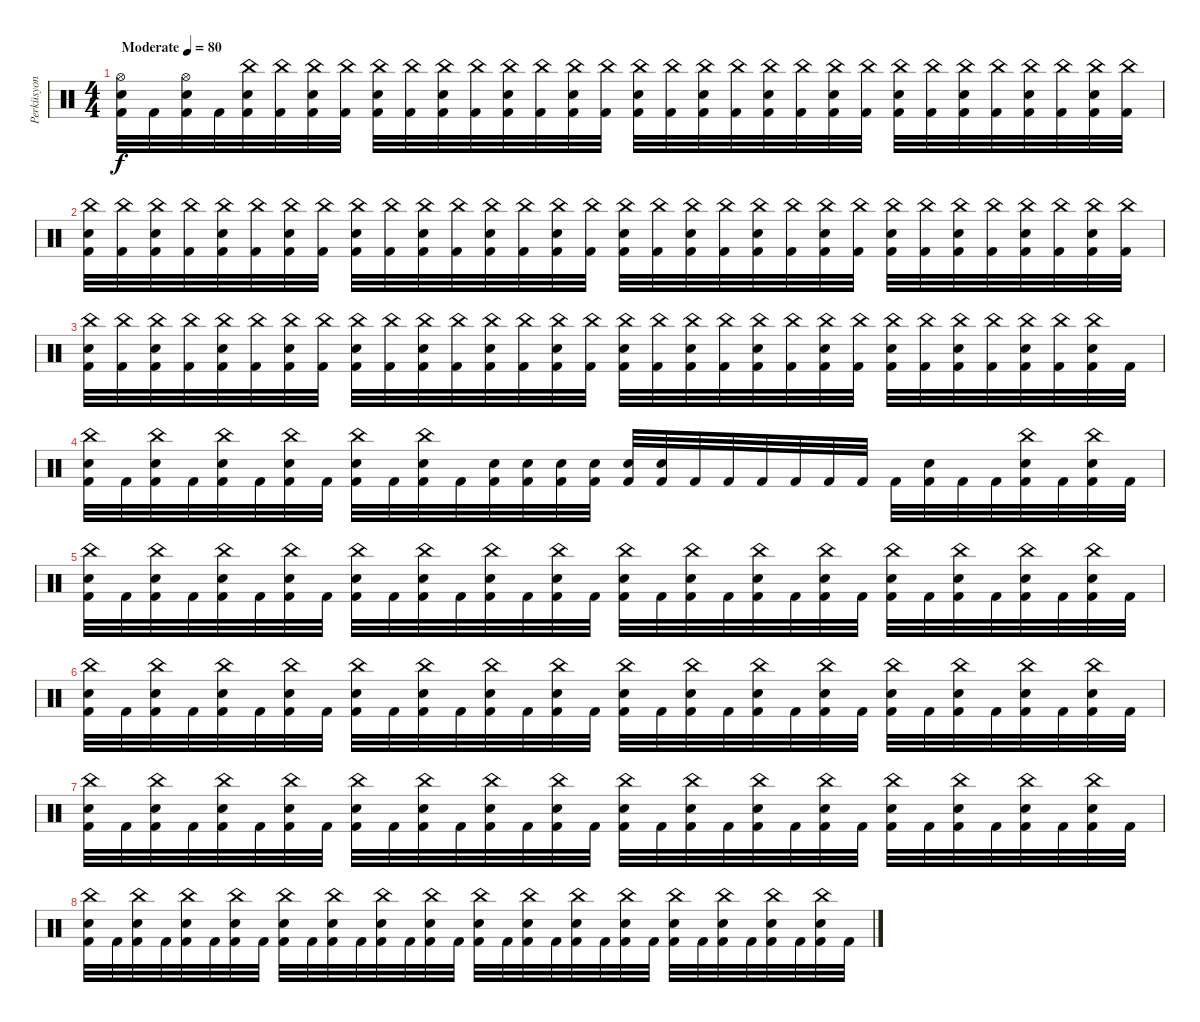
\track ("Perküsyon" "Perküsyon") {instrument percussion}
\staff {score}
\articulation defaults
\ts (4 4)
\tempo (80 "Moderate")
\clef neutral
\ks c
("Hi-Hat (open)" "Electric Snare (hit)" "Kick (hit) 2").32{dy f} "Kick (hit) 2".32 ("Hi-Hat (open)" "Electric Snare (hit)" "Kick (hit) 2").32 "Kick (hit) 2".32 ("China (hit)" "Electric Snare (hit)" "Kick (hit) 2").32 ("China (hit)" "Kick (hit) 2").32 ("China (hit)" "Electric Snare (hit)" "Kick (hit) 2").32 ("China (hit)" "Kick (hit) 2").32 ("China (hit)" "Electric Snare (hit)" "Kick (hit) 2").32 ("China (hit)" "Kick (hit) 2").32 ("China (hit)" "Electric Snare (hit)" "Kick (hit) 2").32 ("China (hit)" "Kick (hit) 2").32 ("China (hit)" "Electric Snare (hit)" "Kick (hit) 2").32 ("China (hit)" "Kick (hit) 2").32 ("China (hit)" "Electric Snare (hit)" "Kick (hit) 2").32 ("China (hit)" "Kick (hit) 2").32 ("China (hit)" "Electric Snare (hit)" "Kick (hit) 2").32 ("China (hit)" "Kick (hit) 2").32 ("China (hit)" "Electric Snare (hit)" "Kick (hit) 2").32 ("China (hit)" "Kick (hit) 2").32 ("China (hit)" "Electric Snare (hit)" "Kick (hit) 2").32 ("China (hit)" "Kick (hit) 2").32 ("China (hit)" "Electric Snare (hit)" "Kick (hit) 2").32 ("China (hit)" "Kick (hit) 2").32 ("China (hit)" "Electric Snare (hit)" "Kick (hit) 2").32 ("China (hit)" "Kick (hit) 2").32 ("China (hit)" "Electric Snare (hit)" "Kick (hit) 2").32 ("China (hit)" "Kick (hit) 2").32 ("China (hit)" "Electric Snare (hit)" "Kick (hit) 2").32 ("China (hit)" "Kick (hit) 2").32 ("China (hit)" "Electric Snare (hit)" "Kick (hit) 2").32 ("China (hit)" "Kick (hit) 2").32 |
("China (hit)" "Electric Snare (hit)" "Kick (hit) 2").32 ("China (hit)" "Kick (hit) 2").32 ("China (hit)" "Electric Snare (hit)" "Kick (hit) 2").32 ("China (hit)" "Kick (hit) 2").32 ("China (hit)" "Electric Snare (hit)" "Kick (hit) 2").32 ("China (hit)" "Kick (hit) 2").32 ("China (hit)" "Electric Snare (hit)" "Kick (hit) 2").32 ("China (hit)" "Kick (hit) 2").32 ("China (hit)" "Electric Snare (hit)" "Kick (hit) 2").32 ("China (hit)" "Kick (hit) 2").32 ("China (hit)" "Electric Snare (hit)" "Kick (hit) 2").32 ("China (hit)" "Kick (hit) 2").32 ("China (hit)" "Electric Snare (hit)" "Kick (hit) 2").32 ("China (hit)" "Kick (hit) 2").32 ("China (hit)" "Electric Snare (hit)" "Kick (hit) 2").32 ("China (hit)" "Kick (hit) 2").32 ("China (hit)" "Electric Snare (hit)" "Kick (hit) 2").32 ("China (hit)" "Kick (hit) 2").32 ("China (hit)" "Electric Snare (hit)" "Kick (hit) 2").32 ("China (hit)" "Kick (hit) 2").32 ("China (hit)" "Electric Snare (hit)" "Kick (hit) 2").32 ("China (hit)" "Kick (hit) 2").32 ("China (hit)" "Electric Snare (hit)" "Kick (hit) 2").32 ("China (hit)" "Kick (hit) 2").32 ("China (hit)" "Electric Snare (hit)" "Kick (hit) 2").32 ("China (hit)" "Kick (hit) 2").32 ("China (hit)" "Electric Snare (hit)" "Kick (hit) 2").32 ("China (hit)" "Kick (hit) 2").32 ("China (hit)" "Electric Snare (hit)" "Kick (hit) 2").32 ("China (hit)" "Kick (hit) 2").32 ("China (hit)" "Electric Snare (hit)" "Kick (hit) 2").32 ("China (hit)" "Kick (hit) 2").32 |
("China (hit)" "Electric Snare (hit)" "Kick (hit) 2").32 ("China (hit)" "Kick (hit) 2").32 ("China (hit)" "Electric Snare (hit)" "Kick (hit) 2").32 ("China (hit)" "Kick (hit) 2").32 ("China (hit)" "Electric Snare (hit)" "Kick (hit) 2").32 ("China (hit)" "Kick (hit) 2").32 ("China (hit)" "Electric Snare (hit)" "Kick (hit) 2").32 ("China (hit)" "Kick (hit) 2").32 ("China (hit)" "Electric Snare (hit)" "Kick (hit) 2").32 ("China (hit)" "Kick (hit) 2").32 ("China (hit)" "Electric Snare (hit)" "Kick (hit) 2").32 ("China (hit)" "Kick (hit) 2").32 ("China (hit)" "Electric Snare (hit)" "Kick (hit) 2").32 ("China (hit)" "Kick (hit) 2").32 ("China (hit)" "Electric Snare (hit)" "Kick (hit) 2").32 ("China (hit)" "Kick (hit) 2").32 ("China (hit)" "Electric Snare (hit)" "Kick (hit) 2").32 ("China (hit)" "Kick (hit) 2").32 ("China (hit)" "Electric Snare (hit)" "Kick (hit) 2").32 ("China (hit)" "Kick (hit) 2").32 ("China (hit)" "Electric Snare (hit)" "Kick (hit) 2").32 ("China (hit)" "Kick (hit) 2").32 ("China (hit)" "Electric Snare (hit)" "Kick (hit) 2").32 ("China (hit)" "Kick (hit) 2").32 ("China (hit)" "Electric Snare (hit)" "Kick (hit) 2").32 ("China (hit)" "Kick (hit) 2").32 ("China (hit)" "Electric Snare (hit)" "Kick (hit) 2").32 ("China (hit)" "Kick (hit) 2").32 ("China (hit)" "Electric Snare (hit)" "Kick (hit) 2").32 ("China (hit)" "Kick (hit) 2").32 ("China (hit)" "Electric Snare (hit)" "Kick (hit) 2").32 "Kick (hit) 2".32 |
("China (hit)" "Electric Snare (hit)" "Kick (hit) 2").32 "Kick (hit) 2".32 ("China (hit)" "Electric Snare (hit)" "Kick (hit) 2").32 "Kick (hit) 2".32 ("China (hit)" "Electric Snare (hit)" "Kick (hit) 2").32 "Kick (hit) 2".32 ("China (hit)" "Electric Snare (hit)" "Kick (hit) 2").32 "Kick (hit) 2".32 ("China (hit)" "Electric Snare (hit)" "Kick (hit) 2").32 "Kick (hit) 2".32 ("China (hit)" "Electric Snare (hit)" "Kick (hit) 2").32 "Kick (hit) 2".32 ("Electric Snare (hit)" "Kick (hit) 2").32 ("Electric Snare (hit)" "Kick (hit) 2").32 ("Snare (hit) 2" "Kick (hit) 2").32 ("Snare (hit) 2" "Kick (hit) 2").32 ("Snare (hit) 2" "Kick (hit) 2").32 ("Electric Snare (hit)" "Kick (hit) 2").32 "Kick (hit) 2".32 "Kick (hit) 2".32 "Kick (hit) 2".32 "Kick (hit) 2".32 "Kick (hit) 2".32 "Kick (hit) 2".32 "Kick (hit) 2".32 ("Electric Snare (hit)" "Kick (hit) 2").32 "Kick (hit) 2".32 "Kick (hit) 2".32 ("China (hit)" "Electric Snare (hit)" "Kick (hit) 2").32 "Kick (hit) 2".32 ("China (hit)" "Electric Snare (hit)" "Kick (hit) 2").32 "Kick (hit) 2".32 |
("China (hit)" "Electric Snare (hit)" "Kick (hit) 2").32 "Kick (hit) 2".32 ("China (hit)" "Electric Snare (hit)" "Kick (hit) 2").32 "Kick (hit) 2".32 ("China (hit)" "Electric Snare (hit)" "Kick (hit) 2").32 "Kick (hit) 2".32 ("China (hit)" "Electric Snare (hit)" "Kick (hit) 2").32 "Kick (hit) 2".32 ("China (hit)" "Electric Snare (hit)" "Kick (hit) 2").32 "Kick (hit) 2".32 ("China (hit)" "Electric Snare (hit)" "Kick (hit) 2").32 "Kick (hit) 2".32 ("China (hit)" "Electric Snare (hit)" "Kick (hit) 2").32 "Kick (hit) 2".32 ("China (hit)" "Electric Snare (hit)" "Kick (hit) 2").32 "Kick (hit) 2".32 ("China (hit)" "Electric Snare (hit)" "Kick (hit) 2").32 "Kick (hit) 2".32 ("China (hit)" "Electric Snare (hit)" "Kick (hit) 2").32 "Kick (hit) 2".32 ("China (hit)" "Electric Snare (hit)" "Kick (hit) 2").32 "Kick (hit) 2".32 ("China (hit)" "Electric Snare (hit)" "Kick (hit) 2").32 "Kick (hit) 2".32 ("China (hit)" "Electric Snare (hit)" "Kick (hit) 2").32 "Kick (hit) 2".32 ("China (hit)" "Electric Snare (hit)" "Kick (hit) 2").32 "Kick (hit) 2".32 ("China (hit)" "Electric Snare (hit)" "Kick (hit) 2").32 "Kick (hit) 2".32 ("China (hit)" "Electric Snare (hit)" "Kick (hit) 2").32 "Kick (hit) 2".32 |
("China (hit)" "Electric Snare (hit)" "Kick (hit) 2").32 "Kick (hit) 2".32 ("China (hit)" "Electric Snare (hit)" "Kick (hit) 2").32 "Kick (hit) 2".32 ("China (hit)" "Electric Snare (hit)" "Kick (hit) 2").32 "Kick (hit) 2".32 ("China (hit)" "Electric Snare (hit)" "Kick (hit) 2").32 "Kick (hit) 2".32 ("China (hit)" "Electric Snare (hit)" "Kick (hit) 2").32 "Kick (hit) 2".32 ("China (hit)" "Electric Snare (hit)" "Kick (hit) 2").32 "Kick (hit) 2".32 ("China (hit)" "Electric Snare (hit)" "Kick (hit) 2").32 "Kick (hit) 2".32 ("China (hit)" "Electric Snare (hit)" "Kick (hit) 2").32 "Kick (hit) 2".32 ("China (hit)" "Electric Snare (hit)" "Kick (hit) 2").32 "Kick (hit) 2".32 ("China (hit)" "Electric Snare (hit)" "Kick (hit) 2").32 "Kick (hit) 2".32 ("China (hit)" "Electric Snare (hit)" "Kick (hit) 2").32 "Kick (hit) 2".32 ("China (hit)" "Electric Snare (hit)" "Kick (hit) 2").32 "Kick (hit) 2".32 ("China (hit)" "Electric Snare (hit)" "Kick (hit) 2").32 "Kick (hit) 2".32 ("China (hit)" "Electric Snare (hit)" "Kick (hit) 2").32 "Kick (hit) 2".32 ("China (hit)" "Electric Snare (hit)" "Kick (hit) 2").32 "Kick (hit) 2".32 ("China (hit)" "Electric Snare (hit)" "Kick (hit) 2").32 "Kick (hit) 2".32 |
("China (hit)" "Electric Snare (hit)" "Kick (hit) 2").32 "Kick (hit) 2".32 ("China (hit)" "Electric Snare (hit)" "Kick (hit) 2").32 "Kick (hit) 2".32 ("China (hit)" "Electric Snare (hit)" "Kick (hit) 2").32 "Kick (hit) 2".32 ("China (hit)" "Electric Snare (hit)" "Kick (hit) 2").32 "Kick (hit) 2".32 ("China (hit)" "Electric Snare (hit)" "Kick (hit) 2").32 "Kick (hit) 2".32 ("China (hit)" "Electric Snare (hit)" "Kick (hit) 2").32 "Kick (hit) 2".32 ("China (hit)" "Electric Snare (hit)" "Kick (hit) 2").32 "Kick (hit) 2".32 ("China (hit)" "Electric Snare (hit)" "Kick (hit) 2").32 "Kick (hit) 2".32 ("China (hit)" "Electric Snare (hit)" "Kick (hit) 2").32 "Kick (hit) 2".32 ("China (hit)" "Electric Snare (hit)" "Kick (hit) 2").32 "Kick (hit) 2".32 ("China (hit)" "Electric Snare (hit)" "Kick (hit) 2").32 "Kick (hit) 2".32 ("China (hit)" "Electric Snare (hit)" "Kick (hit) 2").32 "Kick (hit) 2".32 ("China (hit)" "Electric Snare (hit)" "Kick (hit) 2").32 "Kick (hit) 2".32 ("China (hit)" "Electric Snare (hit)" "Kick (hit) 2").32 "Kick (hit) 2".32 ("China (hit)" "Electric Snare (hit)" "Kick (hit) 2").32 "Kick (hit) 2".32 ("China (hit)" "Electric Snare (hit)" "Kick (hit) 2").32 "Kick (hit) 2".32 |
("China (hit)" "Electric Snare (hit)" "Kick (hit) 2").32 "Kick (hit) 2".32 ("China (hit)" "Electric Snare (hit)" "Kick (hit) 2").32 "Kick (hit) 2".32 ("China (hit)" "Electric Snare (hit)" "Kick (hit) 2").32 "Kick (hit) 2".32 ("China (hit)" "Electric Snare (hit)" "Kick (hit) 2").32 "Kick (hit) 2".32 ("China (hit)" "Electric Snare (hit)" "Kick (hit) 2").32 "Kick (hit) 2".32 ("China (hit)" "Electric Snare (hit)" "Kick (hit) 2").32 "Kick (hit) 2".32 ("China (hit)" "Electric Snare (hit)" "Kick (hit) 2").32 "Kick (hit) 2".32 ("China (hit)" "Electric Snare (hit)" "Kick (hit) 2").32 "Kick (hit) 2".32 ("China (hit)" "Electric Snare (hit)" "Kick (hit) 2").32 "Kick (hit) 2".32 ("China (hit)" "Electric Snare (hit)" "Kick (hit) 2").32 "Kick (hit) 2".32 ("China (hit)" "Electric Snare (hit)" "Kick (hit) 2").32 "Kick (hit) 2".32 ("China (hit)" "Electric Snare (hit)" "Kick (hit) 2").32 "Kick (hit) 2".32 ("China (hit)" "Electric Snare (hit)" "Kick (hit) 2").32 "Kick (hit) 2".32 ("China (hit)" "Electric Snare (hit)" "Kick (hit) 2").32 "Kick (hit) 2".32 ("China (hit)" "Electric Snare (hit)" "Kick (hit) 2").32 "Kick (hit) 2".32 ("China (hit)" "Electric Snare (hit)" "Kick (hit) 2").32 "Kick (hit) 2".32
